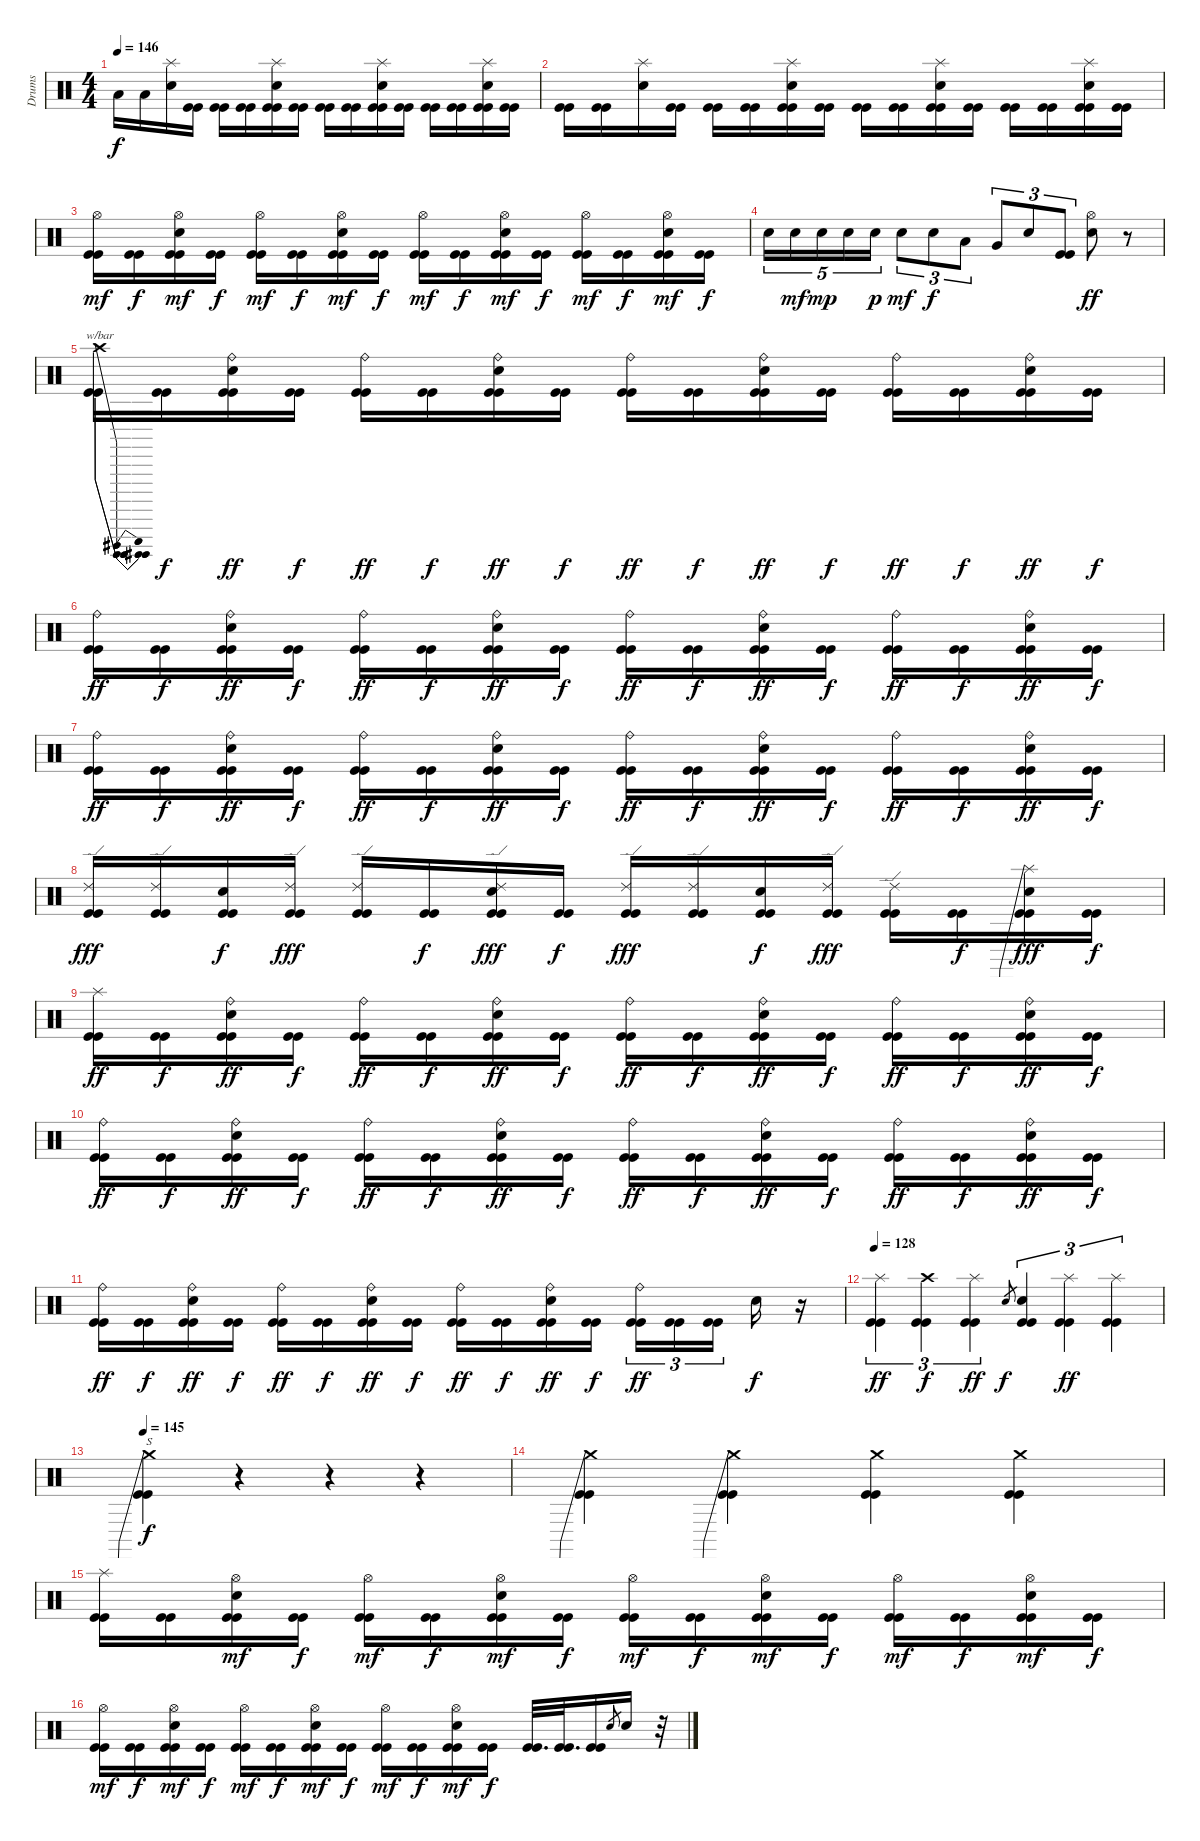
\track ("Drums" "Drums") {instrument percussion}
\staff {score}
\articulation defaults
\ts (4 4)
\tempo 146
\clef neutral
\ks c "Low Floor Tom (hit)".16{dy f} "Low Floor Tom (hit)".16
("Splash (hit)" "Electric Snare (hit)").16 ("Kick (hit)" "Kick (hit)").16 ("Kick (hit)" "Kick (hit)").16 ("Kick (hit)" "Kick (hit)").16 ("Splash (hit)" "Electric Snare (hit)" "Kick (hit)" "Kick (hit)").16 ("Kick (hit)" "Kick (hit)").16 ("Kick (hit)" "Kick (hit)").16 ("Kick (hit)" "Kick (hit)").16 ("Splash (hit)" "Electric Snare (hit)" "Kick (hit)" "Kick (hit)").16 ("Kick (hit)" "Kick (hit)").16 ("Kick (hit)" "Kick (hit)").16 ("Kick (hit)" "Kick (hit)").16 ("Splash (hit)" "Electric Snare (hit)" "Kick (hit)" "Kick (hit)").16 ("Kick (hit)" "Kick (hit)").16 |
("Kick (hit)" "Kick (hit)").16 ("Kick (hit)" "Kick (hit)").16 ("Splash (hit)" "Electric Snare (hit)").16 ("Kick (hit)" "Kick (hit)").16 ("Kick (hit)" "Kick (hit)").16 ("Kick (hit)" "Kick (hit)").16 ("Splash (hit)" "Electric Snare (hit)" "Kick (hit)" "Kick (hit)").16 ("Kick (hit)" "Kick (hit)").16 ("Kick (hit)" "Kick (hit)").16 ("Kick (hit)" "Kick (hit)").16 ("Splash (hit)" "Electric Snare (hit)" "Kick (hit)" "Kick (hit)").16 ("Kick (hit)" "Kick (hit)").16 ("Kick (hit)" "Kick (hit)").16 ("Kick (hit)" "Kick (hit)").16 ("Splash (hit)" "Electric Snare (hit)" "Kick (hit)" "Kick (hit)").16 ("Kick (hit)" "Kick (hit)").16 |
("Hi-Hat (open)" "Kick (hit)" "Kick (hit)").16{dy mf} ("Kick (hit)" "Kick (hit)").16{dy f} ("Hi-Hat (open)" "Electric Snare (hit)" "Kick (hit)" "Kick (hit)").16{dy mf} ("Kick (hit)" "Kick (hit)").16{dy f} ("Hi-Hat (open)" "Kick (hit)" "Kick (hit)").16{dy mf} ("Kick (hit)" "Kick (hit)").16{dy f} ("Hi-Hat (open)" "Electric Snare (hit)" "Kick (hit)" "Kick (hit)").16{dy mf} ("Kick (hit)" "Kick (hit)").16{dy f} ("Hi-Hat (open)" "Kick (hit)" "Kick (hit)").16{dy mf} ("Kick (hit)" "Kick (hit)").16{dy f} ("Hi-Hat (open)" "Electric Snare (hit)" "Kick (hit)" "Kick (hit)").16{dy mf} ("Kick (hit)" "Kick (hit)").16{dy f} ("Hi-Hat (open)" "Kick (hit)" "Kick (hit)").16{dy mf} ("Kick (hit)" "Kick (hit)").16{dy f} ("Hi-Hat (open)" "Electric Snare (hit)" "Kick (hit)" "Kick (hit)").16{dy mf} ("Kick (hit)" "Kick (hit)").16{dy f} |
"Electric Snare (hit)".16{tu (5 4)} "Electric Snare (hit)".16{tu (5 4) dy mf} "Electric Snare (hit)".16{tu (5 4) dy mp} "Electric Snare (hit)".16{tu (5 4)} "Electric Snare (hit)".16{tu (5 4) dy p} "Electric Snare (hit)".8{tu (3 2) dy mf} "Electric Snare (hit)".8{tu (3 2) dy f} "Low Tom (hit)".8{tu (3 2)} "Very Low Tom (hit)".8{tu (3 2)} "Electric Snare (hit)".8{tu (3 2)} ("Kick (hit)" "Kick (hit)").8{tu (3 2)} ("Hi-Hat (open)" "Electric Snare (hit)").8{dy ff} r.8 |
("Crash high (hit)" "Kick (hit)" "Kick (hit)").16{tbe (dip default 0 0 30 -2 60 0)} ("Kick (hit)" "Kick (hit)").16{dy f} ("Ride (bell)" "Electric Snare (hit)" "Kick (hit)" "Kick (hit)").16{dy ff} ("Kick (hit)" "Kick (hit)").16{dy f} ("Ride (bell)" "Kick (hit)" "Kick (hit)").16{dy ff} ("Kick (hit)" "Kick (hit)").16{dy f} ("Ride (bell)" "Electric Snare (hit)" "Kick (hit)" "Kick (hit)").16{dy ff} ("Kick (hit)" "Kick (hit)").16{dy f} ("Ride (bell)" "Kick (hit)" "Kick (hit)").16{dy ff} ("Kick (hit)" "Kick (hit)").16{dy f} ("Ride (bell)" "Electric Snare (hit)" "Kick (hit)" "Kick (hit)").16{dy ff} ("Kick (hit)" "Kick (hit)").16{dy f} ("Ride (bell)" "Kick (hit)" "Kick (hit)").16{dy ff} ("Kick (hit)" "Kick (hit)").16{dy f} ("Ride (bell)" "Electric Snare (hit)" "Kick (hit)" "Kick (hit)").16{dy ff} ("Kick (hit)" "Kick (hit)").16{dy f} |
("Ride (bell)" "Kick (hit)" "Kick (hit)").16{dy ff} ("Kick (hit)" "Kick (hit)").16{dy f} ("Ride (bell)" "Electric Snare (hit)" "Kick (hit)" "Kick (hit)").16{dy ff} ("Kick (hit)" "Kick (hit)").16{dy f} ("Ride (bell)" "Kick (hit)" "Kick (hit)").16{dy ff} ("Kick (hit)" "Kick (hit)").16{dy f} ("Ride (bell)" "Electric Snare (hit)" "Kick (hit)" "Kick (hit)").16{dy ff} ("Kick (hit)" "Kick (hit)").16{dy f} ("Ride (bell)" "Kick (hit)" "Kick (hit)").16{dy ff} ("Kick (hit)" "Kick (hit)").16{dy f} ("Ride (bell)" "Electric Snare (hit)" "Kick (hit)" "Kick (hit)").16{dy ff} ("Kick (hit)" "Kick (hit)").16{dy f} ("Ride (bell)" "Kick (hit)" "Kick (hit)").16{dy ff} ("Kick (hit)" "Kick (hit)").16{dy f} ("Ride (bell)" "Electric Snare (hit)" "Kick (hit)" "Kick (hit)").16{dy ff} ("Kick (hit)" "Kick (hit)").16{dy f} |
("Ride (bell)" "Kick (hit)" "Kick (hit)").16{dy ff} ("Kick (hit)" "Kick (hit)").16{dy f} ("Ride (bell)" "Electric Snare (hit)" "Kick (hit)" "Kick (hit)").16{dy ff} ("Kick (hit)" "Kick (hit)").16{dy f} ("Ride (bell)" "Kick (hit)" "Kick (hit)").16{dy ff} ("Kick (hit)" "Kick (hit)").16{dy f} ("Ride (bell)" "Electric Snare (hit)" "Kick (hit)" "Kick (hit)").16{dy ff} ("Kick (hit)" "Kick (hit)").16{dy f} ("Ride (bell)" "Kick (hit)" "Kick (hit)").16{dy ff} ("Kick (hit)" "Kick (hit)").16{dy f} ("Ride (bell)" "Electric Snare (hit)" "Kick (hit)" "Kick (hit)").16{dy ff} ("Kick (hit)" "Kick (hit)").16{dy f} ("Ride (bell)" "Kick (hit)" "Kick (hit)").16{dy ff} ("Kick (hit)" "Kick (hit)").16{dy f} ("Ride (bell)" "Electric Snare (hit)" "Kick (hit)" "Kick (hit)").16{dy ff} ("Kick (hit)" "Kick (hit)").16{dy f} |
("Ride (edge) 2" "Kick (hit)" "Kick (hit)").16{dy fff} ("Ride (edge) 2" "Kick (hit)" "Kick (hit)").16 ("Electric Snare (hit)" "Kick (hit)" "Kick (hit)").16{dy f} ("Ride (edge) 2" "Kick (hit)" "Kick (hit)").16{dy fff} ("Ride (edge) 2" "Kick (hit)" "Kick (hit)").16 ("Kick (hit)" "Kick (hit)").16{dy f} ("Ride (edge) 2" "Electric Snare (hit)" "Kick (hit)" "Kick (hit)").16{dy fff} ("Kick (hit)" "Kick (hit)").16{dy f} ("Ride (edge) 2" "Kick (hit)" "Kick (hit)").16{dy fff} ("Ride (edge) 2" "Kick (hit)" "Kick (hit)").16 ("Electric Snare (hit)" "Kick (hit)" "Kick (hit)").16{dy f} ("Ride (edge) 2" "Kick (hit)" "Kick (hit)").16{dy fff} ("Ride (edge) 2" "Kick (hit)" "Kick (hit)").16 ("Kick (hit)" "Kick (hit)").16{dy f} ("Splash (hit)"{be (prebend 0 3 60 3)} "Electric Snare (hit)" "Kick (hit)" "Kick (hit)").16{dy fff} ("Kick (hit)" "Kick (hit)").16{dy f} |
("Splash (hit)" "Kick (hit)" "Kick (hit)").16{dy ff} ("Kick (hit)" "Kick (hit)").16{dy f} ("Ride (bell)" "Electric Snare (hit)" "Kick (hit)" "Kick (hit)").16{dy ff} ("Kick (hit)" "Kick (hit)").16{dy f} ("Ride (bell)" "Kick (hit)" "Kick (hit)").16{dy ff} ("Kick (hit)" "Kick (hit)").16{dy f} ("Ride (bell)" "Electric Snare (hit)" "Kick (hit)" "Kick (hit)").16{dy ff} ("Kick (hit)" "Kick (hit)").16{dy f} ("Ride (bell)" "Kick (hit)" "Kick (hit)").16{dy ff} ("Kick (hit)" "Kick (hit)").16{dy f} ("Ride (bell)" "Electric Snare (hit)" "Kick (hit)" "Kick (hit)").16{dy ff} ("Kick (hit)" "Kick (hit)").16{dy f} ("Ride (bell)" "Kick (hit)" "Kick (hit)").16{dy ff} ("Kick (hit)" "Kick (hit)").16{dy f} ("Ride (bell)" "Electric Snare (hit)" "Kick (hit)" "Kick (hit)").16{dy ff} ("Kick (hit)" "Kick (hit)").16{dy f} |
("Ride (bell)" "Kick (hit)" "Kick (hit)").16{dy ff} ("Kick (hit)" "Kick (hit)").16{dy f} ("Ride (bell)" "Electric Snare (hit)" "Kick (hit)" "Kick (hit)").16{dy ff} ("Kick (hit)" "Kick (hit)").16{dy f} ("Ride (bell)" "Kick (hit)" "Kick (hit)").16{dy ff} ("Kick (hit)" "Kick (hit)").16{dy f} ("Ride (bell)" "Electric Snare (hit)" "Kick (hit)" "Kick (hit)").16{dy ff} ("Kick (hit)" "Kick (hit)").16{dy f} ("Ride (bell)" "Kick (hit)" "Kick (hit)").16{dy ff} ("Kick (hit)" "Kick (hit)").16{dy f} ("Ride (bell)" "Electric Snare (hit)" "Kick (hit)" "Kick (hit)").16{dy ff} ("Kick (hit)" "Kick (hit)").16{dy f} ("Ride (bell)" "Kick (hit)" "Kick (hit)").16{dy ff} ("Kick (hit)" "Kick (hit)").16{dy f} ("Ride (bell)" "Electric Snare (hit)" "Kick (hit)" "Kick (hit)").16{dy ff} ("Kick (hit)" "Kick (hit)").16{dy f} |
("Ride (bell)" "Kick (hit)" "Kick (hit)").16{dy ff} ("Kick (hit)" "Kick (hit)").16{dy f} ("Ride (bell)" "Electric Snare (hit)" "Kick (hit)" "Kick (hit)").16{dy ff} ("Kick (hit)" "Kick (hit)").16{dy f} ("Ride (bell)" "Kick (hit)" "Kick (hit)").16{dy ff} ("Kick (hit)" "Kick (hit)").16{dy f} ("Ride (bell)" "Electric Snare (hit)" "Kick (hit)" "Kick (hit)").16{dy ff} ("Kick (hit)" "Kick (hit)").16{dy f} ("Ride (bell)" "Kick (hit)" "Kick (hit)").16{dy ff} ("Kick (hit)" "Kick (hit)").16{dy f} ("Ride (bell)" "Electric Snare (hit)" "Kick (hit)" "Kick (hit)").16{dy ff} ("Kick (hit)" "Kick (hit)").16{dy f} ("Ride (bell)" "Kick (hit)" "Kick (hit)").16{tu (3 2) dy ff} ("Kick (hit)" "Kick (hit)").16{tu (3 2)} ("Kick (hit)" "Kick (hit)").16{tu (3 2)} "Electric Snare (hit)".16{dy f} r.16 |
\tempo 128
("Splash (hit)" "Kick (hit)" "Kick (hit)").4{tu (3 2) dy ff} ("Crash high (hit)" "Kick (hit)" "Kick (hit)").4{tu (3 2) dy f} ("Splash (hit)" "Kick (hit)" "Kick (hit)").4{tu (3 2) dy ff} "Electric Snare (hit)".8{gr dy f} ("Electric Snare (hit)" "Kick (hit)" "Kick (hit)").4{tu (3 2)} ("Splash (hit)" "Kick (hit)" "Kick (hit)").4{tu (3 2) dy ff} ("Splash (hit)" "Kick (hit)" "Kick (hit)").4{tu (3 2)} |
\tempo 145
("Crash medium (hit)"{be (prebend 0 3 60 3)} "Kick (hit)" "Kick (hit)").4{s dy f} r.4{volume 0} r.4 r.4 |
("Crash medium (hit)"{be (prebend 0 5 60 5)} "Kick (hit)" "Kick (hit)").4{volume 11} ("Crash medium (hit)"{be (prebend 0 2 60 2)} "Kick (hit)" "Kick (hit)").4 ("Crash medium (hit)" "Kick (hit)" "Kick (hit)").4 ("Crash medium (hit)" "Kick (hit)" "Kick (hit)").4 |
("Splash (hit)" "Kick (hit)" "Kick (hit)").16 ("Kick (hit)" "Kick (hit)").16 ("Hi-Hat (open)" "Electric Snare (hit)" "Kick (hit)" "Kick (hit)").16{dy mf} ("Kick (hit)" "Kick (hit)").16{dy f} ("Hi-Hat (open)" "Kick (hit)" "Kick (hit)").16{dy mf} ("Kick (hit)" "Kick (hit)").16{dy f} ("Hi-Hat (open)" "Electric Snare (hit)" "Kick (hit)" "Kick (hit)").16{dy mf} ("Kick (hit)" "Kick (hit)").16{dy f} ("Hi-Hat (open)" "Kick (hit)" "Kick (hit)").16{dy mf} ("Kick (hit)" "Kick (hit)").16{dy f} ("Hi-Hat (open)" "Electric Snare (hit)" "Kick (hit)" "Kick (hit)").16{dy mf} ("Kick (hit)" "Kick (hit)").16{dy f} ("Hi-Hat (open)" "Kick (hit)" "Kick (hit)").16{dy mf} ("Kick (hit)" "Kick (hit)").16{dy f} ("Hi-Hat (open)" "Electric Snare (hit)" "Kick (hit)" "Kick (hit)").16{dy mf} ("Kick (hit)" "Kick (hit)").16{dy f} |
("Hi-Hat (open)" "Kick (hit)" "Kick (hit)").16{dy mf} ("Kick (hit)" "Kick (hit)").16{dy f} ("Hi-Hat (open)" "Electric Snare (hit)" "Kick (hit)" "Kick (hit)").16{dy mf} ("Kick (hit)" "Kick (hit)").16{dy f} ("Hi-Hat (open)" "Kick (hit)" "Kick (hit)").16{dy mf} ("Kick (hit)" "Kick (hit)").16{dy f} ("Hi-Hat (open)" "Electric Snare (hit)" "Kick (hit)" "Kick (hit)").16{dy mf} ("Kick (hit)" "Kick (hit)").16{dy f} ("Hi-Hat (open)" "Kick (hit)" "Kick (hit)").16{dy mf} ("Kick (hit)" "Kick (hit)").16{dy f} ("Hi-Hat (open)" "Electric Snare (hit)" "Kick (hit)" "Kick (hit)").16{dy mf} ("Kick (hit)" "Kick (hit)").16{dy f} ("Kick (hit)" "Kick (hit)").32{d} ("Kick (hit)" "Kick (hit)").32{d} ("Kick (hit)" "Kick (hit)").16 "Electric Snare (hit)".8{gr} "Electric Snare (hit)".16 r.32
